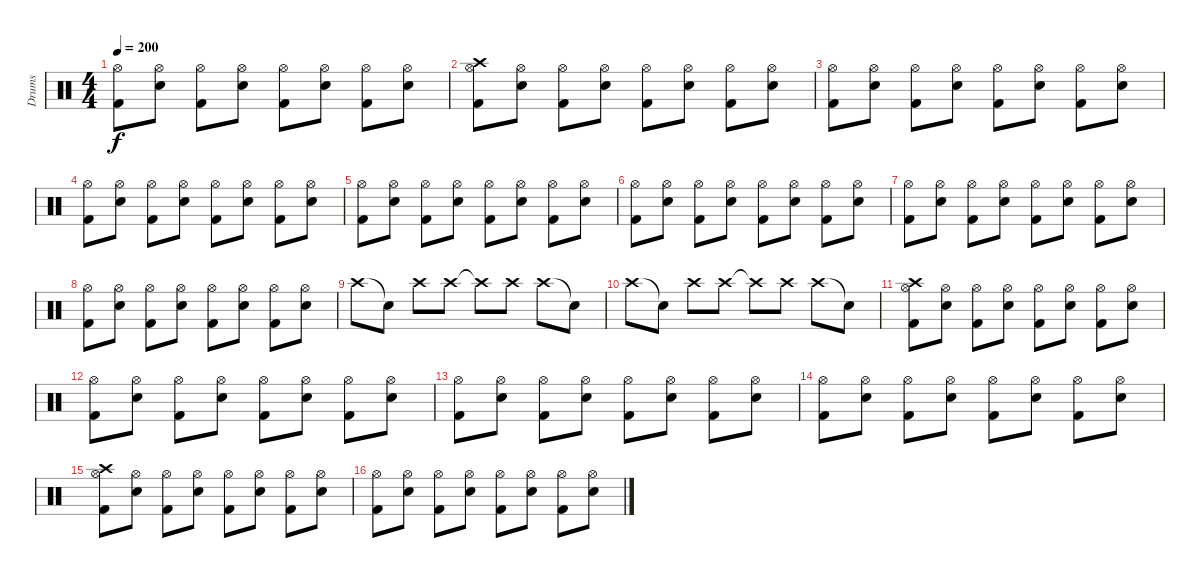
\track ("Drums" "Drums") {instrument percussion}
\staff {score}
\articulation defaults
\ts (4 4)
\tempo 200
\clef neutral
\ks c
("Kick (hit) 2" "Hi-Hat (open)").8{dy f} ("Snare (hit) 2" "Hi-Hat (open)").8 ("Kick (hit) 2" "Hi-Hat (open)").8 ("Snare (hit) 2" "Hi-Hat (open)").8 ("Kick (hit) 2" "Hi-Hat (open)").8 ("Snare (hit) 2" "Hi-Hat (open)").8 ("Kick (hit) 2" "Hi-Hat (open)").8 ("Snare (hit) 2" "Hi-Hat (open)").8 |
("Kick (hit) 2" "Hi-Hat (open)" "Crash high (hit)").8 ("Snare (hit) 2" "Hi-Hat (open)").8 ("Kick (hit) 2" "Hi-Hat (open)").8 ("Snare (hit) 2" "Hi-Hat (open)").8 ("Kick (hit) 2" "Hi-Hat (open)").8 ("Snare (hit) 2" "Hi-Hat (open)").8 ("Kick (hit) 2" "Hi-Hat (open)").8 ("Snare (hit) 2" "Hi-Hat (open)").8 |
("Kick (hit) 2" "Hi-Hat (open)").8 ("Snare (hit) 2" "Hi-Hat (open)").8 ("Kick (hit) 2" "Hi-Hat (open)").8 ("Snare (hit) 2" "Hi-Hat (open)").8 ("Kick (hit) 2" "Hi-Hat (open)").8 ("Snare (hit) 2" "Hi-Hat (open)").8 ("Kick (hit) 2" "Hi-Hat (open)").8 ("Snare (hit) 2" "Hi-Hat (open)").8 |
("Kick (hit) 2" "Hi-Hat (open)").8 ("Snare (hit) 2" "Hi-Hat (open)").8 ("Kick (hit) 2" "Hi-Hat (open)").8 ("Snare (hit) 2" "Hi-Hat (open)").8 ("Kick (hit) 2" "Hi-Hat (open)").8 ("Snare (hit) 2" "Hi-Hat (open)").8 ("Kick (hit) 2" "Hi-Hat (open)").8 ("Snare (hit) 2" "Hi-Hat (open)").8 |
("Kick (hit) 2" "Hi-Hat (open)").8 ("Snare (hit) 2" "Hi-Hat (open)").8 ("Kick (hit) 2" "Hi-Hat (open)").8 ("Snare (hit) 2" "Hi-Hat (open)").8 ("Kick (hit) 2" "Hi-Hat (open)").8 ("Snare (hit) 2" "Hi-Hat (open)").8 ("Kick (hit) 2" "Hi-Hat (open)").8 ("Snare (hit) 2" "Hi-Hat (open)").8 |
("Kick (hit) 2" "Hi-Hat (open)").8 ("Snare (hit) 2" "Hi-Hat (open)").8 ("Kick (hit) 2" "Hi-Hat (open)").8 ("Snare (hit) 2" "Hi-Hat (open)").8 ("Kick (hit) 2" "Hi-Hat (open)").8 ("Snare (hit) 2" "Hi-Hat (open)").8 ("Kick (hit) 2" "Hi-Hat (open)").8 ("Snare (hit) 2" "Hi-Hat (open)").8 |
("Kick (hit) 2" "Hi-Hat (open)").8 ("Snare (hit) 2" "Hi-Hat (open)").8 ("Kick (hit) 2" "Hi-Hat (open)").8 ("Snare (hit) 2" "Hi-Hat (open)").8 ("Kick (hit) 2" "Hi-Hat (open)").8 ("Snare (hit) 2" "Hi-Hat (open)").8 ("Kick (hit) 2" "Hi-Hat (open)").8 ("Snare (hit) 2" "Hi-Hat (open)").8 |
("Kick (hit) 2" "Hi-Hat (open)").8 ("Snare (hit) 2" "Hi-Hat (open)").8 ("Kick (hit) 2" "Hi-Hat (open)").8 ("Snare (hit) 2" "Hi-Hat (open)").8 ("Kick (hit) 2" "Hi-Hat (open)").8 ("Snare (hit) 2" "Hi-Hat (open)").8 ("Kick (hit) 2" "Hi-Hat (open)").8 ("Snare (hit) 2" "Hi-Hat (open)").8 |
"Crash high (hit)".8 "Snare (hit)"{t}.8 "Crash high (hit)".8 "Crash high (hit)".8 "Crash high (hit)"{t}.8 "Crash high (hit)".8 "Crash high (hit)".8 "Snare (hit)"{t}.8 |
"Crash high (hit)".8 "Snare (hit)"{t}.8 "Crash high (hit)".8 "Crash high (hit)".8 "Crash high (hit)"{t}.8 "Crash high (hit)".8 "Crash high (hit)".8 "Snare (hit)"{t}.8 |
("Kick (hit) 2" "Hi-Hat (open)" "Crash high (hit)").8 ("Snare (hit) 2" "Hi-Hat (open)").8 ("Kick (hit) 2" "Hi-Hat (open)").8 ("Snare (hit) 2" "Hi-Hat (open)").8 ("Kick (hit) 2" "Hi-Hat (open)").8 ("Snare (hit) 2" "Hi-Hat (open)").8 ("Kick (hit) 2" "Hi-Hat (open)").8 ("Snare (hit) 2" "Hi-Hat (open)").8 |
("Kick (hit) 2" "Hi-Hat (open)").8 ("Snare (hit) 2" "Hi-Hat (open)").8 ("Kick (hit) 2" "Hi-Hat (open)").8 ("Snare (hit) 2" "Hi-Hat (open)").8 ("Kick (hit) 2" "Hi-Hat (open)").8 ("Snare (hit) 2" "Hi-Hat (open)").8 ("Kick (hit) 2" "Hi-Hat (open)").8 ("Snare (hit) 2" "Hi-Hat (open)").8 |
("Kick (hit) 2" "Hi-Hat (open)").8 ("Snare (hit) 2" "Hi-Hat (open)").8 ("Kick (hit) 2" "Hi-Hat (open)").8 ("Snare (hit) 2" "Hi-Hat (open)").8 ("Kick (hit) 2" "Hi-Hat (open)").8 ("Snare (hit) 2" "Hi-Hat (open)").8 ("Kick (hit) 2" "Hi-Hat (open)").8 ("Snare (hit) 2" "Hi-Hat (open)").8 |
("Kick (hit) 2" "Hi-Hat (open)").8 ("Snare (hit) 2" "Hi-Hat (open)").8 ("Kick (hit) 2" "Hi-Hat (open)").8 ("Snare (hit) 2" "Hi-Hat (open)").8 ("Kick (hit) 2" "Hi-Hat (open)").8 ("Snare (hit) 2" "Hi-Hat (open)").8 ("Kick (hit) 2" "Hi-Hat (open)").8 ("Snare (hit) 2" "Hi-Hat (open)").8 |
("Kick (hit) 2" "Hi-Hat (open)" "Crash high (hit)").8 ("Snare (hit) 2" "Hi-Hat (open)").8 ("Kick (hit) 2" "Hi-Hat (open)").8 ("Snare (hit) 2" "Hi-Hat (open)").8 ("Kick (hit) 2" "Hi-Hat (open)").8 ("Snare (hit) 2" "Hi-Hat (open)").8 ("Kick (hit) 2" "Hi-Hat (open)").8 ("Snare (hit) 2" "Hi-Hat (open)").8 |
("Kick (hit) 2" "Hi-Hat (open)").8 ("Snare (hit) 2" "Hi-Hat (open)").8 ("Kick (hit) 2" "Hi-Hat (open)").8 ("Snare (hit) 2" "Hi-Hat (open)").8 ("Kick (hit) 2" "Hi-Hat (open)").8 ("Snare (hit) 2" "Hi-Hat (open)").8 ("Kick (hit) 2" "Hi-Hat (open)").8 ("Snare (hit) 2" "Hi-Hat (open)").8
